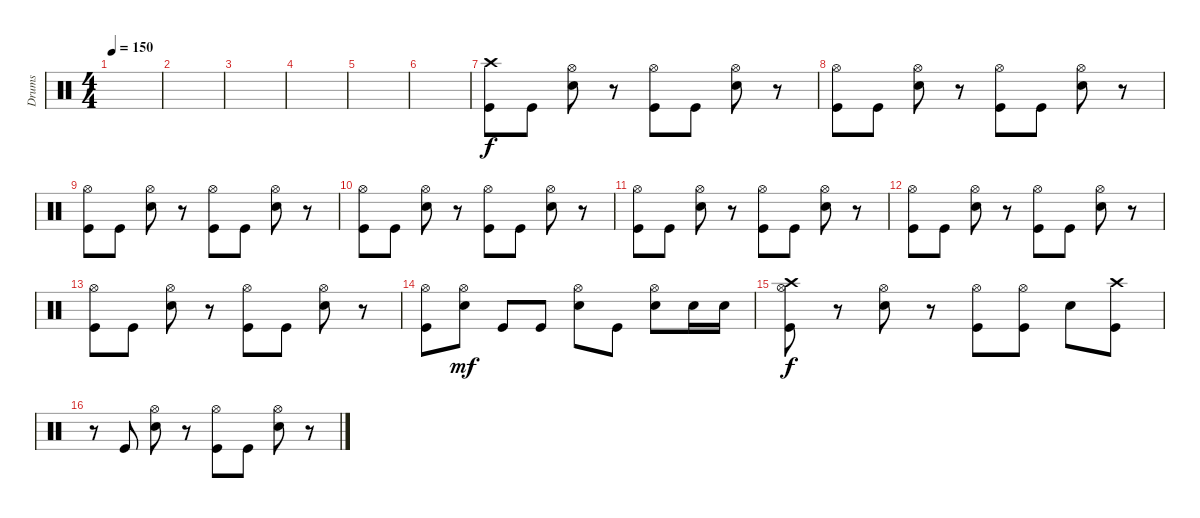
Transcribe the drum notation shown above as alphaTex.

\track ("Drums" "Drums") {instrument percussion}
\staff {score}
\articulation defaults
\ts (4 4)
\tempo 150
\clef neutral
\ks c
|
|
|
|
|
|
("Crash high (hit)" "Kick (hit)").8 "Kick (hit)".8 ("Hi-Hat (open)" "Electric Snare (hit)").8 r.8 ("Hi-Hat (open)" "Kick (hit)").8 "Kick (hit)".8 ("Hi-Hat (open)" "Electric Snare (hit)").8 r.8 |
("Hi-Hat (open)" "Kick (hit)").8 "Kick (hit)".8 ("Hi-Hat (open)" "Electric Snare (hit)").8 r.8 ("Hi-Hat (open)" "Kick (hit)").8 "Kick (hit)".8 ("Hi-Hat (open)" "Electric Snare (hit)").8 r.8 |
("Hi-Hat (open)" "Kick (hit)").8 "Kick (hit)".8 ("Hi-Hat (open)" "Electric Snare (hit)").8 r.8 ("Hi-Hat (open)" "Kick (hit)").8 "Kick (hit)".8 ("Hi-Hat (open)" "Electric Snare (hit)").8 r.8 |
("Hi-Hat (open)" "Kick (hit)").8 "Kick (hit)".8 ("Hi-Hat (open)" "Electric Snare (hit)").8 r.8 ("Hi-Hat (open)" "Kick (hit)").8 "Kick (hit)".8 ("Hi-Hat (open)" "Electric Snare (hit)").8 r.8 |
("Hi-Hat (open)" "Kick (hit)").8 "Kick (hit)".8 ("Hi-Hat (open)" "Electric Snare (hit)").8 r.8 ("Hi-Hat (open)" "Kick (hit)").8 "Kick (hit)".8 ("Hi-Hat (open)" "Electric Snare (hit)").8 r.8 |
("Hi-Hat (open)" "Kick (hit)").8 "Kick (hit)".8 ("Hi-Hat (open)" "Electric Snare (hit)").8 r.8 ("Hi-Hat (open)" "Kick (hit)").8 "Kick (hit)".8 ("Hi-Hat (open)" "Electric Snare (hit)").8 r.8 |
("Hi-Hat (open)" "Kick (hit)").8 "Kick (hit)".8 ("Hi-Hat (open)" "Electric Snare (hit)").8 r.8 ("Hi-Hat (open)" "Kick (hit)").8 "Kick (hit)".8 ("Hi-Hat (open)" "Electric Snare (hit)").8 r.8 |
("Hi-Hat (open)" "Kick (hit)").8 ("Hi-Hat (open)" "Electric Snare (hit)").8{dy mf} "Kick (hit)".8 "Kick (hit)".8 ("Hi-Hat (open)" "Electric Snare (hit)").8 "Kick (hit)".8 ("Hi-Hat (open)" "Electric Snare (hit)").8 "Electric Snare (hit)".16 "Electric Snare (hit)".16 |
("Crash high (hit)" "Hi-Hat (open)" "Kick (hit)").8{dy f} r.8 ("Hi-Hat (open)" "Electric Snare (hit)").8 r.8 ("Hi-Hat (open)" "Kick (hit)").8 ("Hi-Hat (open)" "Kick (hit)").8 "Electric Snare (hit)".8 ("Crash high (hit)" "Kick (hit)").8 |
r.8 "Kick (hit)".8 ("Hi-Hat (open)" "Electric Snare (hit)").8 r.8 ("Hi-Hat (open)" "Kick (hit)").8 "Kick (hit)".8 ("Hi-Hat (open)" "Electric Snare (hit)").8 r.8
